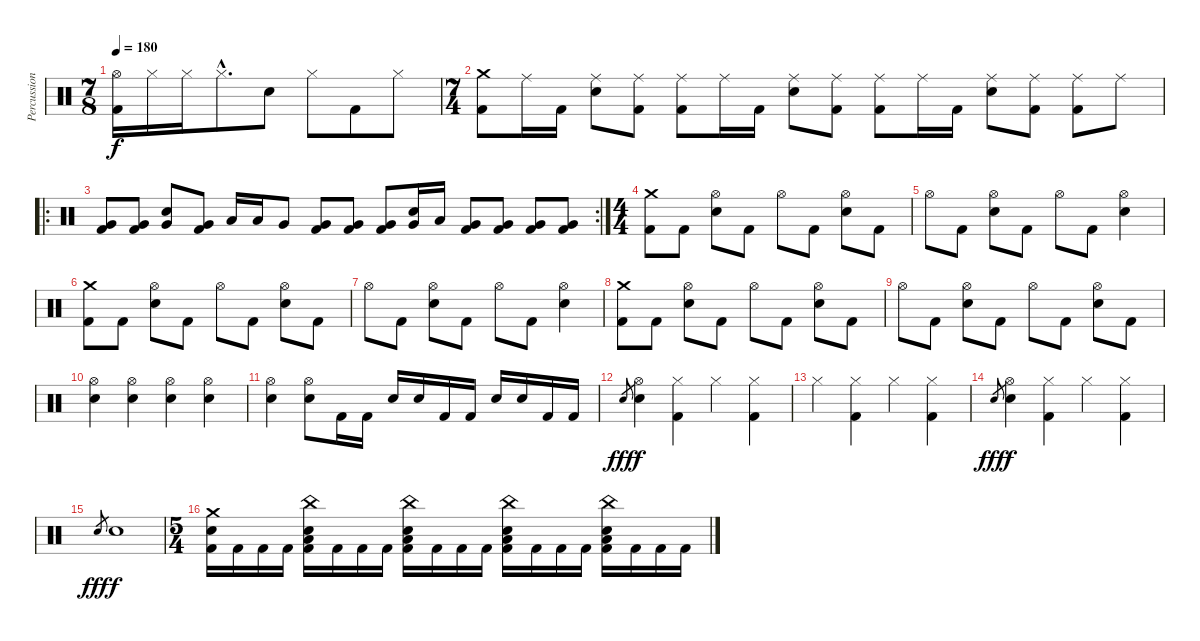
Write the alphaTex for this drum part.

\track ("Percussion" "Percussion") {instrument percussion}
\staff {score}
\articulation defaults
\ts (7 8)
\tempo 180
\clef neutral
\ks c
("Hi-Hat (open)" "Kick (hit) 2").16{dy f} "Hi-Hat (closed)".16 "Hi-Hat (closed)".16 "Hi-Hat (closed)"{hac}.8{d} "Electric Snare (hit)".8 "Hi-Hat (closed)".8 "Kick (hit) 2".8 "Hi-Hat (closed)".8 |
\ts (7 4)
("Crash medium (hit)" "Kick (hit) 2").8 "Ride (middle)".16 "Kick (hit) 2".16 ("Ride (middle)" "Electric Snare (hit)").8 ("Ride (middle)" "Kick (hit) 2").8 ("Ride (middle)" "Kick (hit) 2").8 "Ride (middle)".16 "Kick (hit) 2".16 ("Ride (middle)" "Electric Snare (hit)").8 ("Ride (middle)" "Kick (hit) 2").8 ("Ride (middle)" "Kick (hit) 2").8 "Ride (middle)".16 "Kick (hit) 2".16 ("Ride (middle)" "Electric Snare (hit)").8 ("Ride (middle)" "Kick (hit) 2").8 ("Ride (middle)" "Kick (hit) 2").8 "Ride (middle)".8 |
\ro
\rc 2
("Very Low Tom (hit)" "Kick (hit) 2").8 ("Very Low Tom (hit)" "Kick (hit) 2").8 ("Very Low Tom (hit)" "Electric Snare (hit)").8 ("Very Low Tom (hit)" "Kick (hit) 2").8 "Low Tom (hit)".16 "Low Tom (hit)".16 "Very Low Tom (hit)".8 ("Very Low Tom (hit)" "Kick (hit) 2").8 ("Very Low Tom (hit)" "Kick (hit) 2").8 ("Very Low Tom (hit)" "Kick (hit) 2").8 ("Very Low Tom (hit)" "Electric Snare (hit)").16 "Low Tom (hit)".16 ("Very Low Tom (hit)" "Kick (hit) 2").8 ("Very Low Tom (hit)" "Kick (hit) 2").8 ("Very Low Tom (hit)" "Kick (hit) 2").8 ("Very Low Tom (hit)" "Kick (hit) 2").8 |
\ts (4 4)
("Crash medium (hit)" "Kick (hit) 2").8 "Kick (hit) 2".8 ("Hi-Hat (open)" "Electric Snare (hit)").8 "Kick (hit) 2".8 "Hi-Hat (open)".8 "Kick (hit) 2".8 ("Hi-Hat (open)" "Electric Snare (hit)").8 "Kick (hit) 2".8 |
"Hi-Hat (open)".8 "Kick (hit) 2".8 ("Hi-Hat (open)" "Electric Snare (hit)").8 "Kick (hit) 2".8 "Hi-Hat (open)".8 "Kick (hit) 2".8 ("Hi-Hat (open)" "Electric Snare (hit)").4 |
("Crash medium (hit)" "Kick (hit) 2").8 "Kick (hit) 2".8 ("Hi-Hat (open)" "Electric Snare (hit)").8 "Kick (hit) 2".8 "Hi-Hat (open)".8 "Kick (hit) 2".8 ("Hi-Hat (open)" "Electric Snare (hit)").8 "Kick (hit) 2".8 |
"Hi-Hat (open)".8 "Kick (hit) 2".8 ("Hi-Hat (open)" "Electric Snare (hit)").8 "Kick (hit) 2".8 "Hi-Hat (open)".8 "Kick (hit) 2".8 ("Hi-Hat (open)" "Electric Snare (hit)").4 |
("Crash medium (hit)" "Kick (hit) 2").8 "Kick (hit) 2".8 ("Hi-Hat (open)" "Electric Snare (hit)").8 "Kick (hit) 2".8 "Hi-Hat (open)".8 "Kick (hit) 2".8 ("Hi-Hat (open)" "Electric Snare (hit)").8 "Kick (hit) 2".8 |
"Hi-Hat (open)".8 "Kick (hit) 2".8 ("Hi-Hat (open)" "Electric Snare (hit)").8 "Kick (hit) 2".8 "Hi-Hat (open)".8 "Kick (hit) 2".8 ("Hi-Hat (open)" "Electric Snare (hit)").8 "Kick (hit) 2".8 |
("Hi-Hat (open)" "Electric Snare (hit)").4 ("Hi-Hat (open)" "Electric Snare (hit)").4 ("Hi-Hat (open)" "Electric Snare (hit)").4 ("Hi-Hat (open)" "Electric Snare (hit)").4 |
("Hi-Hat (open)" "Electric Snare (hit)").4 ("Hi-Hat (open)" "Electric Snare (hit)").8 "Kick (hit) 2".16 "Kick (hit) 2".16 "Electric Snare (hit)".16 "Electric Snare (hit)".16 "Kick (hit) 2".16 "Kick (hit) 2".16 "Electric Snare (hit)".16 "Electric Snare (hit)".16 "Kick (hit) 2".16 "Kick (hit) 2".16 |
"Electric Snare (hit)".8{gr dy fff} ("Hi-Hat (open)" "Electric Snare (hit)").4{dy f} ("Hi-Hat (closed)" "Kick (hit) 2").4 "Hi-Hat (closed)".4 ("Hi-Hat (closed)" "Kick (hit) 2").4 |
"Hi-Hat (closed)".4 ("Hi-Hat (closed)" "Kick (hit) 2").4 "Hi-Hat (closed)".4 ("Hi-Hat (closed)" "Kick (hit) 2").4 |
"Electric Snare (hit)".8{gr dy fff} ("Hi-Hat (open)" "Electric Snare (hit)").4{dy f} ("Hi-Hat (closed)" "Kick (hit) 2").4 "Hi-Hat (closed)".4 ("Hi-Hat (closed)" "Kick (hit) 2").4 |
"Electric Snare (hit)".8{gr dy fff} "Electric Snare (hit)".1{dy f} |
\ts (5 4)
("Crash medium (hit)" "Electric Snare (hit)" "Kick (hit) 2").16 "Kick (hit) 2".16 "Kick (hit) 2".16 "Kick (hit) 2".16 ("Low Tom (hit)" "China (hit)" "Electric Snare (hit)" "Kick (hit) 2").16 "Kick (hit) 2".16 "Kick (hit) 2".16 "Kick (hit) 2".16 ("Low Tom (hit)" "China (hit)" "Electric Snare (hit)" "Kick (hit) 2").16 "Kick (hit) 2".16 "Kick (hit) 2".16 "Kick (hit) 2".16 ("Low Tom (hit)" "China (hit)" "Electric Snare (hit)" "Kick (hit) 2").16 "Kick (hit) 2".16 "Kick (hit) 2".16 "Kick (hit) 2".16 ("Low Tom (hit)" "China (hit)" "Electric Snare (hit)" "Kick (hit) 2").16 "Kick (hit) 2".16 "Kick (hit) 2".16 "Kick (hit) 2".16
